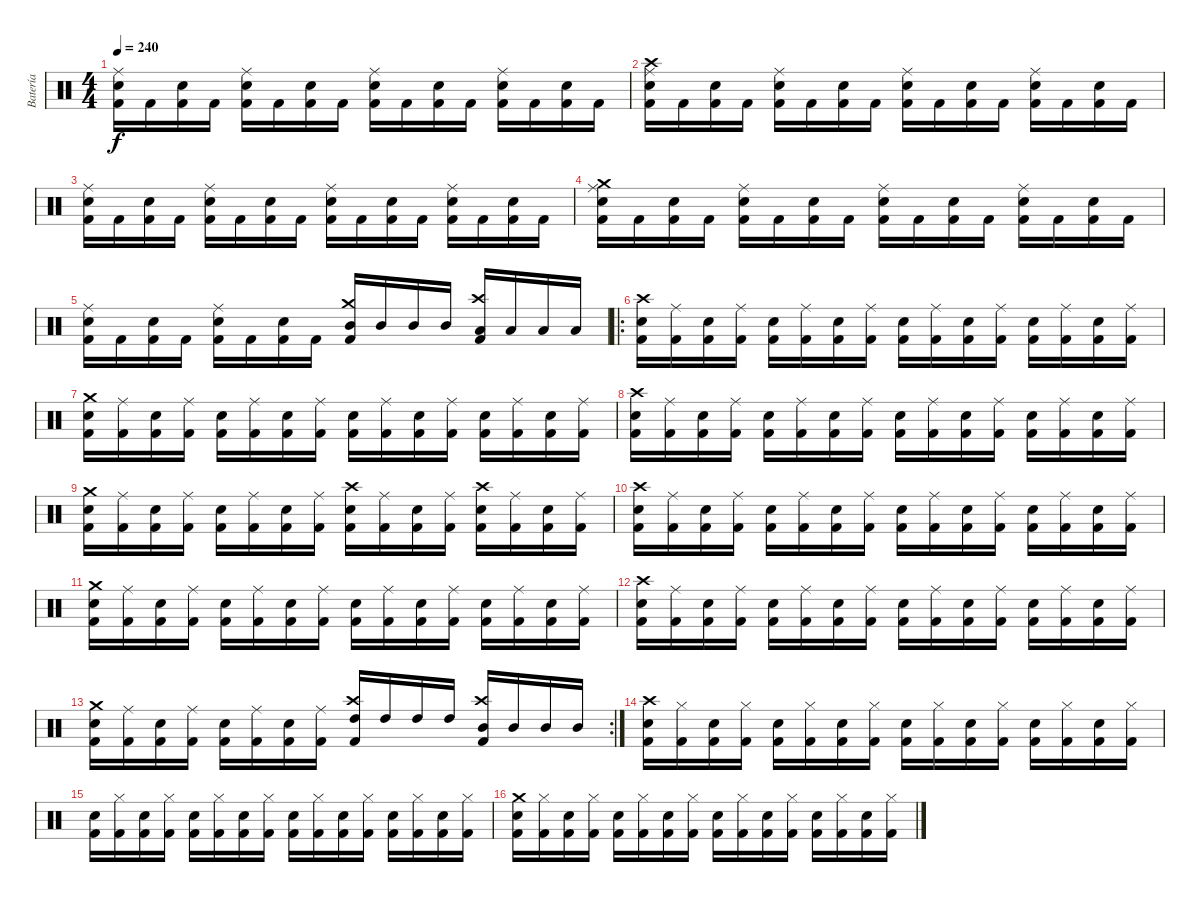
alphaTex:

\track ("Batería" "Batería") {instrument percussion}
\staff {score}
\articulation defaults
\ts (4 4)
\tempo 240
\clef neutral
\ks c
("Ride (middle)" "Kick (hit) 2" "Electric Snare (hit)").16{dy f} "Kick (hit) 2".16 ("Kick (hit) 2" "Electric Snare (hit)").16 "Kick (hit) 2".16 ("Ride (middle)" "Kick (hit) 2" "Electric Snare (hit)").16 "Kick (hit) 2".16 ("Kick (hit) 2" "Electric Snare (hit)").16 "Kick (hit) 2".16 ("Ride (middle)" "Kick (hit) 2" "Electric Snare (hit)").16 "Kick (hit) 2".16 ("Kick (hit) 2" "Electric Snare (hit)").16 "Kick (hit) 2".16 ("Ride (middle)" "Kick (hit) 2" "Electric Snare (hit)").16 "Kick (hit) 2".16 ("Kick (hit) 2" "Electric Snare (hit)").16 "Kick (hit) 2".16 |
("Crash high (hit)" "Ride (middle)" "Kick (hit) 2" "Electric Snare (hit)").16 "Kick (hit) 2".16 ("Kick (hit) 2" "Electric Snare (hit)").16 "Kick (hit) 2".16 ("Ride (middle)" "Kick (hit) 2" "Electric Snare (hit)").16 "Kick (hit) 2".16 ("Kick (hit) 2" "Electric Snare (hit)").16 "Kick (hit) 2".16 ("Ride (middle)" "Kick (hit) 2" "Electric Snare (hit)").16 "Kick (hit) 2".16 ("Kick (hit) 2" "Electric Snare (hit)").16 "Kick (hit) 2".16 ("Ride (middle)" "Kick (hit) 2" "Electric Snare (hit)").16 "Kick (hit) 2".16 ("Kick (hit) 2" "Electric Snare (hit)").16 "Kick (hit) 2".16 |
("Ride (middle)" "Kick (hit) 2" "Electric Snare (hit)").16 "Kick (hit) 2".16 ("Kick (hit) 2" "Electric Snare (hit)").16 "Kick (hit) 2".16 ("Ride (middle)" "Kick (hit) 2" "Electric Snare (hit)").16 "Kick (hit) 2".16 ("Kick (hit) 2" "Electric Snare (hit)").16 "Kick (hit) 2".16 ("Ride (middle)" "Kick (hit) 2" "Electric Snare (hit)").16 "Kick (hit) 2".16 ("Kick (hit) 2" "Electric Snare (hit)").16 "Kick (hit) 2".16 ("Ride (middle)" "Kick (hit) 2" "Electric Snare (hit)").16 "Kick (hit) 2".16 ("Kick (hit) 2" "Electric Snare (hit)").16 "Kick (hit) 2".16 |
("Crash medium (hit)" "Ride (middle)" "Kick (hit) 2" "Electric Snare (hit)").16 "Kick (hit) 2".16 ("Kick (hit) 2" "Electric Snare (hit)").16 "Kick (hit) 2".16 ("Ride (middle)" "Kick (hit) 2" "Electric Snare (hit)").16 "Kick (hit) 2".16 ("Kick (hit) 2" "Electric Snare (hit)").16 "Kick (hit) 2".16 ("Ride (middle)" "Kick (hit) 2" "Electric Snare (hit)").16 "Kick (hit) 2".16 ("Kick (hit) 2" "Electric Snare (hit)").16 "Kick (hit) 2".16 ("Ride (middle)" "Kick (hit) 2" "Electric Snare (hit)").16 "Kick (hit) 2".16 ("Kick (hit) 2" "Electric Snare (hit)").16 "Kick (hit) 2".16 |
("Ride (middle)" "Kick (hit) 2" "Electric Snare (hit)").16 "Kick (hit) 2".16 ("Kick (hit) 2" "Electric Snare (hit)").16 "Kick (hit) 2".16 ("Ride (middle)" "Kick (hit) 2" "Electric Snare (hit)").16 "Kick (hit) 2".16 ("Kick (hit) 2" "Electric Snare (hit)").16 "Kick (hit) 2".16 ("Crash medium (hit)" "Kick (hit) 2" "Mid Tom (hit)").16 "Mid Tom (hit)".16 "Mid Tom (hit)".16 "Mid Tom (hit)".16 ("Crash high (hit)" "Kick (hit) 2" "Low Tom (hit)").16 "Low Tom (hit)".16 "Low Tom (hit)".16 "Low Tom (hit)".16 |
\ro
("Crash high (hit)" "Kick (hit) 2" "Electric Snare (hit)").16 ("Kick (hit) 2" "Ride (middle)").16 ("Kick (hit) 2" "Electric Snare (hit)").16 ("Kick (hit) 2" "Ride (middle)").16 ("Kick (hit) 2" "Electric Snare (hit)").16 ("Kick (hit) 2" "Ride (middle)").16 ("Kick (hit) 2" "Electric Snare (hit)").16 ("Kick (hit) 2" "Ride (middle)").16 ("Kick (hit) 2" "Electric Snare (hit)").16 ("Kick (hit) 2" "Ride (middle)").16 ("Kick (hit) 2" "Electric Snare (hit)").16 ("Kick (hit) 2" "Ride (middle)").16 ("Kick (hit) 2" "Electric Snare (hit)").16 ("Kick (hit) 2" "Ride (middle)").16 ("Kick (hit) 2" "Electric Snare (hit)").16 ("Kick (hit) 2" "Ride (middle)").16 |
("Crash medium (hit)" "Kick (hit) 2" "Electric Snare (hit)").16 ("Kick (hit) 2" "Ride (middle)").16 ("Kick (hit) 2" "Electric Snare (hit)").16 ("Kick (hit) 2" "Ride (middle)").16 ("Kick (hit) 2" "Electric Snare (hit)").16 ("Kick (hit) 2" "Ride (middle)").16 ("Kick (hit) 2" "Electric Snare (hit)").16 ("Kick (hit) 2" "Ride (middle)").16 ("Kick (hit) 2" "Electric Snare (hit)").16 ("Kick (hit) 2" "Ride (middle)").16 ("Kick (hit) 2" "Electric Snare (hit)").16 ("Kick (hit) 2" "Ride (middle)").16 ("Kick (hit) 2" "Electric Snare (hit)").16 ("Kick (hit) 2" "Ride (middle)").16 ("Kick (hit) 2" "Electric Snare (hit)").16 ("Kick (hit) 2" "Ride (middle)").16 |
("Crash high (hit)" "Kick (hit) 2" "Electric Snare (hit)").16 ("Kick (hit) 2" "Ride (middle)").16 ("Kick (hit) 2" "Electric Snare (hit)").16 ("Kick (hit) 2" "Ride (middle)").16 ("Kick (hit) 2" "Electric Snare (hit)").16 ("Kick (hit) 2" "Ride (middle)").16 ("Kick (hit) 2" "Electric Snare (hit)").16 ("Kick (hit) 2" "Ride (middle)").16 ("Kick (hit) 2" "Electric Snare (hit)").16 ("Kick (hit) 2" "Ride (middle)").16 ("Kick (hit) 2" "Electric Snare (hit)").16 ("Kick (hit) 2" "Ride (middle)").16 ("Kick (hit) 2" "Electric Snare (hit)").16 ("Kick (hit) 2" "Ride (middle)").16 ("Kick (hit) 2" "Electric Snare (hit)").16 ("Kick (hit) 2" "Ride (middle)").16 |
("Crash medium (hit)" "Kick (hit) 2" "Electric Snare (hit)").16 ("Kick (hit) 2" "Ride (middle)").16 ("Kick (hit) 2" "Electric Snare (hit)").16 ("Kick (hit) 2" "Ride (middle)").16 ("Kick (hit) 2" "Electric Snare (hit)").16 ("Kick (hit) 2" "Ride (middle)").16 ("Kick (hit) 2" "Electric Snare (hit)").16 ("Kick (hit) 2" "Ride (middle)").16 ("Crash high (hit)" "Kick (hit) 2" "Electric Snare (hit)").16 ("Kick (hit) 2" "Ride (middle)").16 ("Kick (hit) 2" "Electric Snare (hit)").16 ("Kick (hit) 2" "Ride (middle)").16 ("Crash high (hit)" "Kick (hit) 2" "Electric Snare (hit)").16 ("Kick (hit) 2" "Ride (middle)").16 ("Kick (hit) 2" "Electric Snare (hit)").16 ("Kick (hit) 2" "Ride (middle)").16 |
("Crash high (hit)" "Kick (hit) 2" "Electric Snare (hit)").16 ("Kick (hit) 2" "Ride (middle)").16 ("Kick (hit) 2" "Electric Snare (hit)").16 ("Kick (hit) 2" "Ride (middle)").16 ("Kick (hit) 2" "Electric Snare (hit)").16 ("Kick (hit) 2" "Ride (middle)").16 ("Kick (hit) 2" "Electric Snare (hit)").16 ("Kick (hit) 2" "Ride (middle)").16 ("Kick (hit) 2" "Electric Snare (hit)").16 ("Kick (hit) 2" "Ride (middle)").16 ("Kick (hit) 2" "Electric Snare (hit)").16 ("Kick (hit) 2" "Ride (middle)").16 ("Kick (hit) 2" "Electric Snare (hit)").16 ("Kick (hit) 2" "Ride (middle)").16 ("Kick (hit) 2" "Electric Snare (hit)").16 ("Kick (hit) 2" "Ride (middle)").16 |
("Crash medium (hit)" "Kick (hit) 2" "Electric Snare (hit)").16 ("Kick (hit) 2" "Ride (middle)").16 ("Kick (hit) 2" "Electric Snare (hit)").16 ("Kick (hit) 2" "Ride (middle)").16 ("Kick (hit) 2" "Electric Snare (hit)").16 ("Kick (hit) 2" "Ride (middle)").16 ("Kick (hit) 2" "Electric Snare (hit)").16 ("Kick (hit) 2" "Ride (middle)").16 ("Kick (hit) 2" "Electric Snare (hit)").16 ("Kick (hit) 2" "Ride (middle)").16 ("Kick (hit) 2" "Electric Snare (hit)").16 ("Kick (hit) 2" "Ride (middle)").16 ("Kick (hit) 2" "Electric Snare (hit)").16 ("Kick (hit) 2" "Ride (middle)").16 ("Kick (hit) 2" "Electric Snare (hit)").16 ("Kick (hit) 2" "Ride (middle)").16 |
("Crash high (hit)" "Kick (hit) 2" "Electric Snare (hit)").16 ("Kick (hit) 2" "Ride (middle)").16 ("Kick (hit) 2" "Electric Snare (hit)").16 ("Kick (hit) 2" "Ride (middle)").16 ("Kick (hit) 2" "Electric Snare (hit)").16 ("Kick (hit) 2" "Ride (middle)").16 ("Kick (hit) 2" "Electric Snare (hit)").16 ("Kick (hit) 2" "Ride (middle)").16 ("Kick (hit) 2" "Electric Snare (hit)").16 ("Kick (hit) 2" "Ride (middle)").16 ("Kick (hit) 2" "Electric Snare (hit)").16 ("Kick (hit) 2" "Ride (middle)").16 ("Kick (hit) 2" "Electric Snare (hit)").16 ("Kick (hit) 2" "Ride (middle)").16 ("Kick (hit) 2" "Electric Snare (hit)").16 ("Kick (hit) 2" "Ride (middle)").16 |
\rc 2
("Crash medium (hit)" "Kick (hit) 2" "Electric Snare (hit)").16 ("Kick (hit) 2" "Ride (middle)").16 ("Kick (hit) 2" "Electric Snare (hit)").16 ("Kick (hit) 2" "Ride (middle)").16 ("Kick (hit) 2" "Electric Snare (hit)").16 ("Kick (hit) 2" "Ride (middle)").16 ("Kick (hit) 2" "Electric Snare (hit)").16 ("Kick (hit) 2" "Ride (middle)").16 ("Crash high (hit)" "Kick (hit) 2" "High Tom (hit)").16 "High Tom (hit)".16 "High Tom (hit)".16 "High Tom (hit)".16 ("Crash high (hit)" "Kick (hit) 2" "Mid Tom (hit)").16 "Mid Tom (hit)".16 "Mid Tom (hit)".16 "Mid Tom (hit)".16 |
("Crash high (hit)" "Kick (hit) 2" "Electric Snare (hit)").16 ("Kick (hit) 2" "Hi-Hat (closed)").16 ("Kick (hit) 2" "Electric Snare (hit)").16 ("Kick (hit) 2" "Hi-Hat (closed)").16 ("Kick (hit) 2" "Electric Snare (hit)").16 ("Kick (hit) 2" "Hi-Hat (closed)").16 ("Kick (hit) 2" "Electric Snare (hit)").16 ("Kick (hit) 2" "Hi-Hat (closed)").16 ("Kick (hit) 2" "Electric Snare (hit)").16 ("Kick (hit) 2" "Hi-Hat (closed)").16 ("Kick (hit) 2" "Electric Snare (hit)").16 ("Kick (hit) 2" "Hi-Hat (closed)").16 ("Kick (hit) 2" "Electric Snare (hit)").16 ("Kick (hit) 2" "Hi-Hat (closed)").16 ("Kick (hit) 2" "Electric Snare (hit)").16 ("Kick (hit) 2" "Hi-Hat (closed)").16 |
("Kick (hit) 2" "Electric Snare (hit)").16 ("Kick (hit) 2" "Hi-Hat (closed)").16 ("Kick (hit) 2" "Electric Snare (hit)").16 ("Kick (hit) 2" "Hi-Hat (closed)").16 ("Kick (hit) 2" "Electric Snare (hit)").16 ("Kick (hit) 2" "Hi-Hat (closed)").16 ("Kick (hit) 2" "Electric Snare (hit)").16 ("Kick (hit) 2" "Hi-Hat (closed)").16 ("Kick (hit) 2" "Electric Snare (hit)").16 ("Kick (hit) 2" "Hi-Hat (closed)").16 ("Kick (hit) 2" "Electric Snare (hit)").16 ("Kick (hit) 2" "Hi-Hat (closed)").16 ("Kick (hit) 2" "Electric Snare (hit)").16 ("Kick (hit) 2" "Hi-Hat (closed)").16 ("Kick (hit) 2" "Electric Snare (hit)").16 ("Kick (hit) 2" "Hi-Hat (closed)").16 |
("Crash medium (hit)" "Kick (hit) 2" "Electric Snare (hit)").16 ("Kick (hit) 2" "Hi-Hat (closed)").16 ("Kick (hit) 2" "Electric Snare (hit)").16 ("Kick (hit) 2" "Hi-Hat (closed)").16 ("Kick (hit) 2" "Electric Snare (hit)").16 ("Kick (hit) 2" "Hi-Hat (closed)").16 ("Kick (hit) 2" "Electric Snare (hit)").16 ("Kick (hit) 2" "Hi-Hat (closed)").16 ("Kick (hit) 2" "Electric Snare (hit)").16 ("Kick (hit) 2" "Hi-Hat (closed)").16 ("Kick (hit) 2" "Electric Snare (hit)").16 ("Kick (hit) 2" "Hi-Hat (closed)").16 ("Kick (hit) 2" "Electric Snare (hit)").16 ("Kick (hit) 2" "Hi-Hat (closed)").16 ("Kick (hit) 2" "Electric Snare (hit)").16 ("Kick (hit) 2" "Hi-Hat (closed)").16
